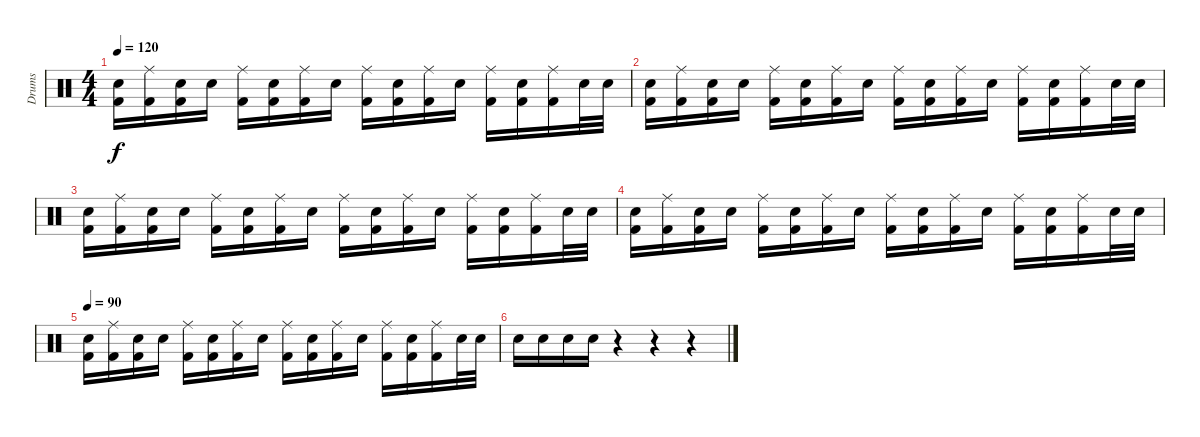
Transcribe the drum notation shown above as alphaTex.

\track ("Drums" "Drums") {instrument percussion}
\staff {score}
\articulation defaults
\ts (4 4)
\tempo 120
\clef neutral
\ks c
("Electric Snare (hit)" "Kick (hit) 2").16{dy f} ("Ride (middle)" "Kick (hit) 2").16 ("Electric Snare (hit)" "Kick (hit) 2").16 "Snare (hit) 2".16 ("Ride (middle)" "Kick (hit) 2").16 ("Electric Snare (hit)" "Kick (hit) 2").16 ("Ride (middle)" "Kick (hit) 2").16 "Snare (hit) 2".16 ("Ride (middle)" "Kick (hit) 2").16 ("Electric Snare (hit)" "Kick (hit) 2").16 ("Ride (middle)" "Kick (hit) 2").16 "Snare (hit) 2".16 ("Ride (middle)" "Kick (hit) 2").16 ("Electric Snare (hit)" "Kick (hit) 2").16 ("Ride (middle)" "Kick (hit) 2").16 "Electric Snare (hit)".32 "Electric Snare (hit)".32 |
("Electric Snare (hit)" "Kick (hit) 2").16 ("Ride (middle)" "Kick (hit) 2").16 ("Electric Snare (hit)" "Kick (hit) 2").16 "Snare (hit) 2".16 ("Ride (middle)" "Kick (hit) 2").16 ("Electric Snare (hit)" "Kick (hit) 2").16 ("Ride (middle)" "Kick (hit) 2").16 "Snare (hit) 2".16 ("Ride (middle)" "Kick (hit) 2").16 ("Electric Snare (hit)" "Kick (hit) 2").16 ("Ride (middle)" "Kick (hit) 2").16 "Snare (hit) 2".16 ("Ride (middle)" "Kick (hit) 2").16 ("Electric Snare (hit)" "Kick (hit) 2").16 ("Ride (middle)" "Kick (hit) 2").16 "Electric Snare (hit)".32 "Electric Snare (hit)".32 |
("Electric Snare (hit)" "Kick (hit) 2").16 ("Ride (middle)" "Kick (hit) 2").16 ("Electric Snare (hit)" "Kick (hit) 2").16 "Snare (hit) 2".16 ("Ride (middle)" "Kick (hit) 2").16 ("Electric Snare (hit)" "Kick (hit) 2").16 ("Ride (middle)" "Kick (hit) 2").16 "Snare (hit) 2".16 ("Ride (middle)" "Kick (hit) 2").16 ("Electric Snare (hit)" "Kick (hit) 2").16 ("Ride (middle)" "Kick (hit) 2").16 "Snare (hit) 2".16 ("Ride (middle)" "Kick (hit) 2").16 ("Electric Snare (hit)" "Kick (hit) 2").16 ("Ride (middle)" "Kick (hit) 2").16 "Electric Snare (hit)".32 "Electric Snare (hit)".32 |
("Electric Snare (hit)" "Kick (hit) 2").16 ("Ride (middle)" "Kick (hit) 2").16 ("Electric Snare (hit)" "Kick (hit) 2").16 "Snare (hit) 2".16 ("Ride (middle)" "Kick (hit) 2").16 ("Electric Snare (hit)" "Kick (hit) 2").16 ("Ride (middle)" "Kick (hit) 2").16 "Snare (hit) 2".16 ("Ride (middle)" "Kick (hit) 2").16 ("Electric Snare (hit)" "Kick (hit) 2").16 ("Ride (middle)" "Kick (hit) 2").16 "Snare (hit) 2".16 ("Ride (middle)" "Kick (hit) 2").16 ("Electric Snare (hit)" "Kick (hit) 2").16 ("Ride (middle)" "Kick (hit) 2").16 "Electric Snare (hit)".32 "Electric Snare (hit)".32 |
\tempo 90
("Electric Snare (hit)" "Kick (hit) 2").16 ("Ride (middle)" "Kick (hit) 2").16 ("Electric Snare (hit)" "Kick (hit) 2").16 "Snare (hit) 2".16 ("Ride (middle)" "Kick (hit) 2").16 ("Electric Snare (hit)" "Kick (hit) 2").16 ("Ride (middle)" "Kick (hit) 2").16 "Snare (hit) 2".16 ("Ride (middle)" "Kick (hit) 2").16 ("Electric Snare (hit)" "Kick (hit) 2").16 ("Ride (middle)" "Kick (hit) 2").16 "Snare (hit) 2".16 ("Ride (middle)" "Kick (hit) 2").16 ("Electric Snare (hit)" "Kick (hit) 2").16 ("Ride (middle)" "Kick (hit) 2").16 "Electric Snare (hit)".32 "Electric Snare (hit)".32 |
"Electric Snare (hit)".16 "Electric Snare (hit)".16 "Electric Snare (hit)".16 "Electric Snare (hit)".16 r.4 r.4 r.4
